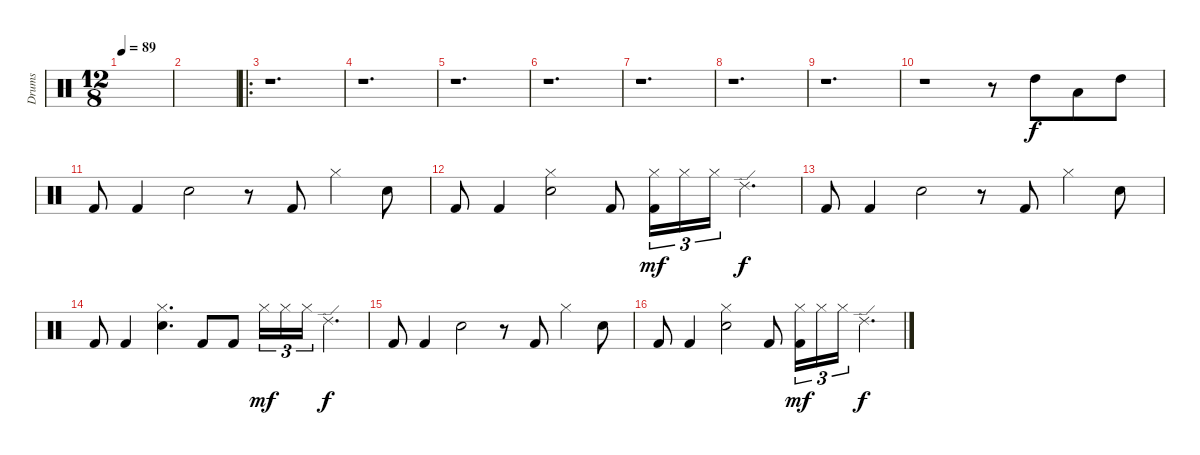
\track ("Drums" "Drums") {instrument percussion}
\staff {score}
\articulation defaults
\ts (12 8)
\tempo 89
\clef neutral
\ks c
|
|
\ro
r.1{d} |
r.1{d} |
r.1{d} |
r.1{d} |
r.1{d} |
r.1{d} |
r.1{d} |
r.1 r.8 "High Tom (hit)".8 "Low Tom (hit)".8 "High Tom (hit)".8 |
"Kick (hit) 2".8 "Kick (hit) 2".4 "Electric Snare (hit)".2 r.8 "Kick (hit) 2".8 "Hi-Hat (closed)".4 "Snare (hit) 2".8 |
"Kick (hit) 2".8 "Kick (hit) 2".4 ("Snare (hit) 2" "Hi-Hat (closed)").2 "Kick (hit) 2".8 ("Hi-Hat (closed)" "Kick (hit) 2").16{tu (3 2) dy mf} "Hi-Hat (closed)".16{tu (3 2)} "Hi-Hat (closed)".16{tu (3 2)} "Ride (edge) 2".4{d dy f} |
"Kick (hit) 2".8 "Kick (hit) 2".4 "Electric Snare (hit)".2 r.8 "Kick (hit) 2".8 "Hi-Hat (closed)".4 "Snare (hit) 2".8 |
"Kick (hit) 2".8 "Kick (hit) 2".4 ("Snare (hit) 2" "Hi-Hat (closed)").4{d} "Kick (hit) 2".8 "Kick (hit) 2".8 "Hi-Hat (closed)".16{tu (3 2) dy mf} "Hi-Hat (closed)".16{tu (3 2)} "Hi-Hat (closed)".16{tu (3 2)} "Ride (edge) 2".4{d dy f} |
"Kick (hit) 2".8 "Kick (hit) 2".4 "Electric Snare (hit)".2 r.8 "Kick (hit) 2".8 "Hi-Hat (closed)".4 "Snare (hit) 2".8 |
"Kick (hit) 2".8 "Kick (hit) 2".4 ("Snare (hit) 2" "Hi-Hat (closed)").2 "Kick (hit) 2".8 ("Hi-Hat (closed)" "Kick (hit) 2").16{tu (3 2) dy mf} "Hi-Hat (closed)".16{tu (3 2)} "Hi-Hat (closed)".16{tu (3 2)} "Ride (edge) 2".4{d dy f}
